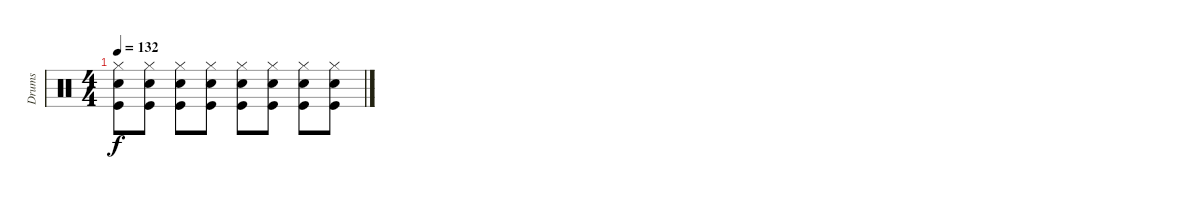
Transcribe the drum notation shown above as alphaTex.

\track ("Drums" "Drums") {instrument percussion}
\staff {score}
\articulation defaults
\ts (4 4)
\tempo 132
\clef neutral
\ks c
("Hi-Hat (closed)" "Snare (hit) 2" "Kick (hit)").8{dy f} ("Hi-Hat (closed)" "Snare (hit) 2" "Kick (hit)").8 ("Hi-Hat (closed)" "Snare (hit) 2" "Kick (hit)").8 ("Hi-Hat (closed)" "Snare (hit) 2" "Kick (hit)").8 ("Hi-Hat (closed)" "Snare (hit) 2" "Kick (hit)").8 ("Hi-Hat (closed)" "Snare (hit) 2" "Kick (hit)").8 ("Hi-Hat (closed)" "Snare (hit) 2" "Kick (hit)").8 ("Hi-Hat (closed)" "Snare (hit) 2" "Kick (hit)").8
